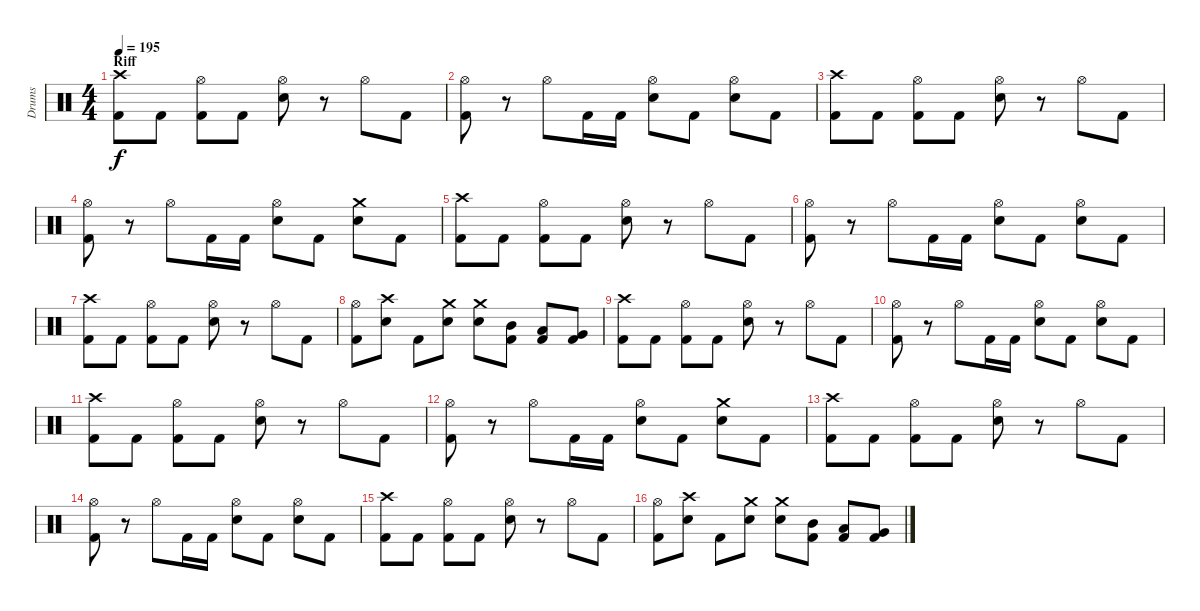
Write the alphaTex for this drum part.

\track ("Drums" "Drums") {instrument percussion}
\staff {score}
\articulation defaults
\ts (4 4)
\section ("" "Riff")
\tempo 195
\clef neutral
\ks c
("Crash high (hit)" "Kick (hit) 2").8{dy f} "Kick (hit) 2".8 ("Hi-Hat (open)" "Kick (hit) 2").8 "Kick (hit) 2".8 ("Hi-Hat (open)" "Snare (hit) 2").8 r.8 "Hi-Hat (open)".8 "Kick (hit) 2".8 |
("Hi-Hat (open)" "Kick (hit) 2").8 r.8 "Hi-Hat (open)".8 "Kick (hit) 2".16 "Kick (hit) 2".16 ("Hi-Hat (open)" "Snare (hit) 2").8 "Kick (hit) 2".8 ("Hi-Hat (open)" "Snare (hit) 2").8 "Kick (hit) 2".8 |
("Crash high (hit)" "Kick (hit) 2").8 "Kick (hit) 2".8 ("Hi-Hat (open)" "Kick (hit) 2").8 "Kick (hit) 2".8 ("Hi-Hat (open)" "Snare (hit) 2").8 r.8 "Hi-Hat (open)".8 "Kick (hit) 2".8 |
("Hi-Hat (open)" "Kick (hit) 2").8 r.8 "Hi-Hat (open)".8 "Kick (hit) 2".16 "Kick (hit) 2".16 ("Hi-Hat (open)" "Snare (hit) 2").8 "Kick (hit) 2".8 ("Crash medium (hit)" "Snare (hit) 2").8 "Kick (hit) 2".8 |
("Crash high (hit)" "Kick (hit) 2").8 "Kick (hit) 2".8 ("Hi-Hat (open)" "Kick (hit) 2").8 "Kick (hit) 2".8 ("Hi-Hat (open)" "Snare (hit) 2").8 r.8 "Hi-Hat (open)".8 "Kick (hit) 2".8 |
("Hi-Hat (open)" "Kick (hit) 2").8 r.8 "Hi-Hat (open)".8 "Kick (hit) 2".16 "Kick (hit) 2".16 ("Hi-Hat (open)" "Snare (hit) 2").8 "Kick (hit) 2".8 ("Hi-Hat (open)" "Snare (hit) 2").8 "Kick (hit) 2".8 |
("Crash high (hit)" "Kick (hit) 2").8 "Kick (hit) 2".8 ("Hi-Hat (open)" "Kick (hit) 2").8 "Kick (hit) 2".8 ("Hi-Hat (open)" "Snare (hit) 2").8 r.8 "Hi-Hat (open)".8 "Kick (hit) 2".8 |
("Hi-Hat (open)" "Kick (hit) 2").8 ("Crash high (hit)" "Snare (hit) 2").8 "Kick (hit) 2".8 ("Crash medium (hit)" "Snare (hit) 2").8 ("Crash medium (hit)" "Snare (hit) 2").8 ("Mid Tom (hit)" "Kick (hit) 2").8 ("Low Tom (hit)" "Kick (hit) 2").8 ("Very Low Tom (hit)" "Kick (hit) 2").8 |
\section ("" "")
("Crash high (hit)" "Kick (hit) 2").8 "Kick (hit) 2".8 ("Hi-Hat (open)" "Kick (hit) 2").8 "Kick (hit) 2".8 ("Hi-Hat (open)" "Snare (hit) 2").8 r.8 "Hi-Hat (open)".8 "Kick (hit) 2".8 |
("Hi-Hat (open)" "Kick (hit) 2").8 r.8 "Hi-Hat (open)".8 "Kick (hit) 2".16 "Kick (hit) 2".16 ("Hi-Hat (open)" "Snare (hit) 2").8 "Kick (hit) 2".8 ("Hi-Hat (open)" "Snare (hit) 2").8 "Kick (hit) 2".8 |
("Crash high (hit)" "Kick (hit) 2").8 "Kick (hit) 2".8 ("Hi-Hat (open)" "Kick (hit) 2").8 "Kick (hit) 2".8 ("Hi-Hat (open)" "Snare (hit) 2").8 r.8 "Hi-Hat (open)".8 "Kick (hit) 2".8 |
("Hi-Hat (open)" "Kick (hit) 2").8 r.8 "Hi-Hat (open)".8 "Kick (hit) 2".16 "Kick (hit) 2".16 ("Hi-Hat (open)" "Snare (hit) 2").8 "Kick (hit) 2".8 ("Crash medium (hit)" "Snare (hit) 2").8 "Kick (hit) 2".8 |
("Crash high (hit)" "Kick (hit) 2").8 "Kick (hit) 2".8 ("Hi-Hat (open)" "Kick (hit) 2").8 "Kick (hit) 2".8 ("Hi-Hat (open)" "Snare (hit) 2").8 r.8 "Hi-Hat (open)".8 "Kick (hit) 2".8 |
("Hi-Hat (open)" "Kick (hit) 2").8 r.8 "Hi-Hat (open)".8 "Kick (hit) 2".16 "Kick (hit) 2".16 ("Hi-Hat (open)" "Snare (hit) 2").8 "Kick (hit) 2".8 ("Hi-Hat (open)" "Snare (hit) 2").8 "Kick (hit) 2".8 |
("Crash high (hit)" "Kick (hit) 2").8 "Kick (hit) 2".8 ("Hi-Hat (open)" "Kick (hit) 2").8 "Kick (hit) 2".8 ("Hi-Hat (open)" "Snare (hit) 2").8 r.8 "Hi-Hat (open)".8 "Kick (hit) 2".8 |
("Hi-Hat (open)" "Kick (hit) 2").8 ("Crash high (hit)" "Snare (hit) 2").8 "Kick (hit) 2".8 ("Crash medium (hit)" "Snare (hit) 2").8 ("Crash medium (hit)" "Snare (hit) 2").8 ("Mid Tom (hit)" "Kick (hit) 2").8 ("Low Tom (hit)" "Kick (hit) 2").8 ("Very Low Tom (hit)" "Kick (hit) 2").8
